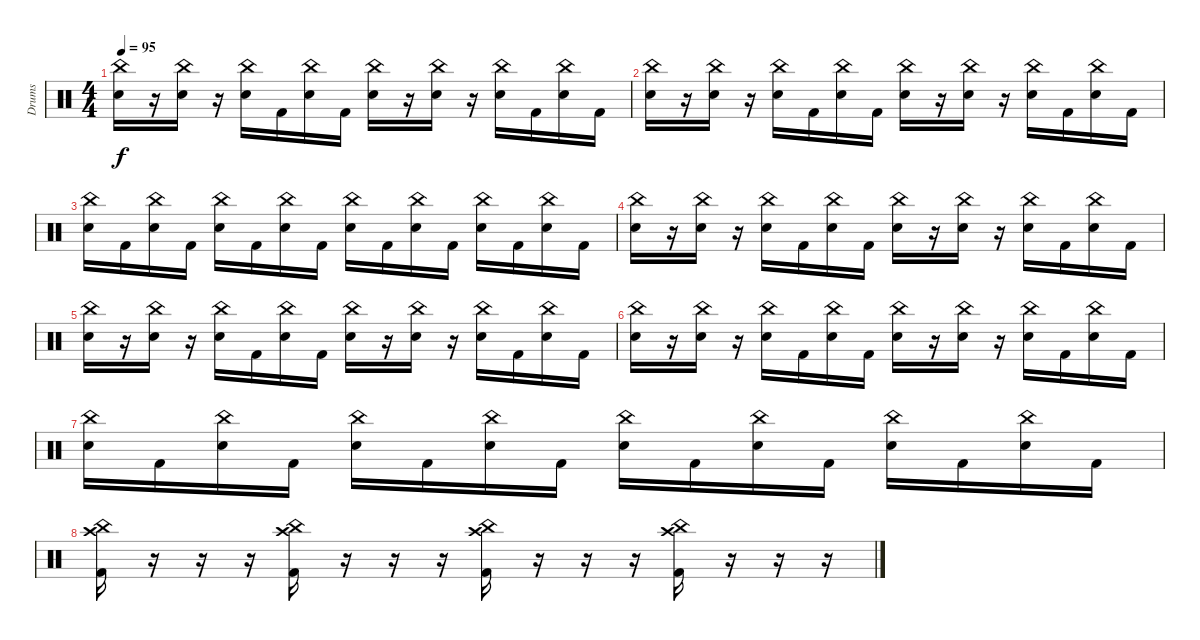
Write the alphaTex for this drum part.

\track ("Drums" "Drums") {instrument percussion}
\staff {score}
\articulation defaults
\ts (4 4)
\tempo 95
\clef neutral
\ks c
("China (hit)" "Electric Snare (hit)").16{dy f} r.16 ("China (hit)" "Electric Snare (hit)").16 r.16 ("China (hit)" "Electric Snare (hit)").16 "Kick (hit) 2".16 ("China (hit)" "Electric Snare (hit)").16 "Kick (hit) 2".16 ("China (hit)" "Electric Snare (hit)").16 r.16 ("China (hit)" "Electric Snare (hit)").16 r.16 ("China (hit)" "Electric Snare (hit)").16 "Kick (hit) 2".16 ("China (hit)" "Electric Snare (hit)").16 "Kick (hit) 2".16 |
("China (hit)" "Electric Snare (hit)").16 r.16 ("China (hit)" "Electric Snare (hit)").16 r.16 ("China (hit)" "Electric Snare (hit)").16 "Kick (hit) 2".16 ("China (hit)" "Electric Snare (hit)").16 "Kick (hit) 2".16 ("China (hit)" "Electric Snare (hit)").16 r.16 ("China (hit)" "Electric Snare (hit)").16 r.16 ("China (hit)" "Electric Snare (hit)").16 "Kick (hit) 2".16 ("China (hit)" "Electric Snare (hit)").16 "Kick (hit) 2".16 |
("China (hit)" "Electric Snare (hit)").16 "Kick (hit) 2".16 ("China (hit)" "Electric Snare (hit)").16 "Kick (hit) 2".16 ("China (hit)" "Electric Snare (hit)").16 "Kick (hit) 2".16 ("China (hit)" "Electric Snare (hit)").16 "Kick (hit) 2".16 ("China (hit)" "Electric Snare (hit)").16 "Kick (hit) 2".16 ("China (hit)" "Electric Snare (hit)").16 "Kick (hit) 2".16 ("China (hit)" "Electric Snare (hit)").16 "Kick (hit) 2".16 ("China (hit)" "Electric Snare (hit)").16 "Kick (hit) 2".16 |
("China (hit)" "Electric Snare (hit)").16 r.16 ("China (hit)" "Electric Snare (hit)").16 r.16 ("China (hit)" "Electric Snare (hit)").16 "Kick (hit) 2".16 ("China (hit)" "Electric Snare (hit)").16 "Kick (hit) 2".16 ("China (hit)" "Electric Snare (hit)").16 r.16 ("China (hit)" "Electric Snare (hit)").16 r.16 ("China (hit)" "Electric Snare (hit)").16 "Kick (hit) 2".16 ("China (hit)" "Electric Snare (hit)").16 "Kick (hit) 2".16 |
("China (hit)" "Electric Snare (hit)").16 r.16 ("China (hit)" "Electric Snare (hit)").16 r.16 ("China (hit)" "Electric Snare (hit)").16 "Kick (hit) 2".16 ("China (hit)" "Electric Snare (hit)").16 "Kick (hit) 2".16 ("China (hit)" "Electric Snare (hit)").16 r.16 ("China (hit)" "Electric Snare (hit)").16 r.16 ("China (hit)" "Electric Snare (hit)").16 "Kick (hit) 2".16 ("China (hit)" "Electric Snare (hit)").16 "Kick (hit) 2".16 |
("China (hit)" "Electric Snare (hit)").16 r.16 ("China (hit)" "Electric Snare (hit)").16 r.16 ("China (hit)" "Electric Snare (hit)").16 "Kick (hit) 2".16 ("China (hit)" "Electric Snare (hit)").16 "Kick (hit) 2".16 ("China (hit)" "Electric Snare (hit)").16 r.16 ("China (hit)" "Electric Snare (hit)").16 r.16 ("China (hit)" "Electric Snare (hit)").16 "Kick (hit) 2".16 ("China (hit)" "Electric Snare (hit)").16 "Kick (hit) 2".16 |
("China (hit)" "Electric Snare (hit)").16 "Kick (hit) 2".16 ("China (hit)" "Electric Snare (hit)").16 "Kick (hit) 2".16 ("China (hit)" "Electric Snare (hit)").16 "Kick (hit) 2".16 ("China (hit)" "Electric Snare (hit)").16 "Kick (hit) 2".16 ("China (hit)" "Electric Snare (hit)").16 "Kick (hit) 2".16 ("China (hit)" "Electric Snare (hit)").16 "Kick (hit) 2".16 ("China (hit)" "Electric Snare (hit)").16 "Kick (hit) 2".16 ("China (hit)" "Electric Snare (hit)").16 "Kick (hit) 2".16 |
("Crash high (hit)" "China (hit)" "Kick (hit) 2").16 r.16 r.16 r.16 ("Crash high (hit)" "China (hit)" "Kick (hit) 2").16 r.16 r.16 r.16 ("Crash high (hit)" "China (hit)" "Kick (hit) 2").16 r.16 r.16 r.16 ("Crash high (hit)" "China (hit)" "Kick (hit) 2").16 r.16 r.16 r.16
